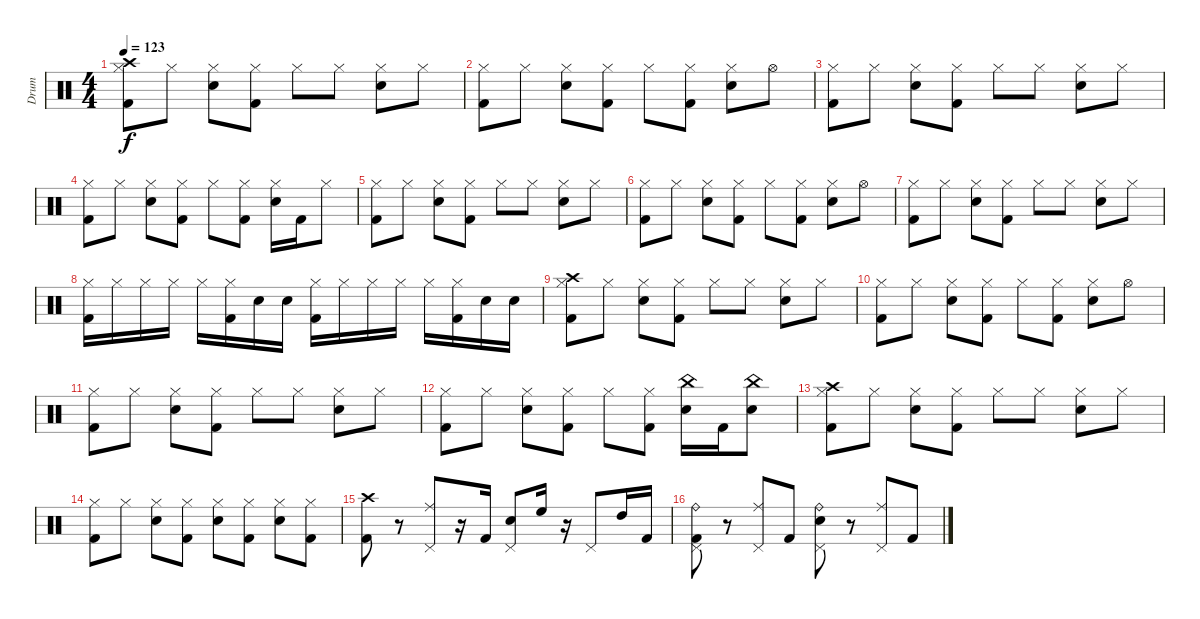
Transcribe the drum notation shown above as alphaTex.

\track ("Drum" "Drum") {instrument percussion}
\staff {score}
\articulation defaults
\ts (4 4)
\tempo 123
\clef neutral
\ks c
("Crash high (hit)" "Hi-Hat (closed)" "Kick (hit) 2").8{dy f} "Hi-Hat (closed)".8 ("Hi-Hat (closed)" "Electric Snare (hit)").8 ("Hi-Hat (closed)" "Kick (hit) 2").8 "Hi-Hat (closed)".8 "Hi-Hat (closed)".8 ("Hi-Hat (closed)" "Electric Snare (hit)").8 "Hi-Hat (closed)".8 |
("Hi-Hat (closed)" "Kick (hit) 2").8 "Hi-Hat (closed)".8 ("Hi-Hat (closed)" "Electric Snare (hit)").8 ("Hi-Hat (closed)" "Kick (hit) 2").8 "Hi-Hat (closed)".8 ("Hi-Hat (closed)" "Kick (hit) 2").8 ("Hi-Hat (closed)" "Electric Snare (hit)").8 "Hi-Hat (open)".8 |
("Hi-Hat (closed)" "Kick (hit) 2").8 "Hi-Hat (closed)".8 ("Hi-Hat (closed)" "Electric Snare (hit)").8 ("Hi-Hat (closed)" "Kick (hit) 2").8 "Hi-Hat (closed)".8 "Hi-Hat (closed)".8 ("Hi-Hat (closed)" "Electric Snare (hit)").8 "Hi-Hat (closed)".8 |
("Hi-Hat (closed)" "Kick (hit) 2").8 "Hi-Hat (closed)".8 ("Hi-Hat (closed)" "Electric Snare (hit)").8 ("Hi-Hat (closed)" "Kick (hit) 2").8 "Hi-Hat (closed)".8 ("Hi-Hat (closed)" "Kick (hit) 2").8 ("Hi-Hat (closed)" "Electric Snare (hit)").16 "Kick (hit) 2".16 "Hi-Hat (closed)".8 |
("Hi-Hat (closed)" "Kick (hit) 2").8 "Hi-Hat (closed)".8 ("Hi-Hat (closed)" "Electric Snare (hit)").8 ("Hi-Hat (closed)" "Kick (hit) 2").8 "Hi-Hat (closed)".8 "Hi-Hat (closed)".8 ("Hi-Hat (closed)" "Electric Snare (hit)").8 "Hi-Hat (closed)".8 |
("Hi-Hat (closed)" "Kick (hit) 2").8 "Hi-Hat (closed)".8 ("Hi-Hat (closed)" "Electric Snare (hit)").8 ("Hi-Hat (closed)" "Kick (hit) 2").8 "Hi-Hat (closed)".8 ("Hi-Hat (closed)" "Kick (hit) 2").8 ("Hi-Hat (closed)" "Electric Snare (hit)").8 "Hi-Hat (open)".8 |
("Hi-Hat (closed)" "Kick (hit) 2").8 "Hi-Hat (closed)".8 ("Hi-Hat (closed)" "Electric Snare (hit)").8 ("Hi-Hat (closed)" "Kick (hit) 2").8 "Hi-Hat (closed)".8 "Hi-Hat (closed)".8 ("Hi-Hat (closed)" "Electric Snare (hit)").8 "Hi-Hat (closed)".8 |
("Hi-Hat (closed)" "Kick (hit) 2").16 "Hi-Hat (closed)".16 "Hi-Hat (closed)".16 "Hi-Hat (closed)".16 "Hi-Hat (closed)".16 ("Hi-Hat (closed)" "Kick (hit) 2").16 "Electric Snare (hit)".16 "Electric Snare (hit)".16 ("Hi-Hat (closed)" "Kick (hit) 2").16 "Hi-Hat (closed)".16 "Hi-Hat (closed)".16 "Hi-Hat (closed)".16 "Hi-Hat (closed)".16 ("Hi-Hat (closed)" "Kick (hit) 2").16 "Electric Snare (hit)".16 "Electric Snare (hit)".16 |
("Crash high (hit)" "Hi-Hat (closed)" "Kick (hit) 2").8 "Hi-Hat (closed)".8 ("Hi-Hat (closed)" "Electric Snare (hit)").8 ("Hi-Hat (closed)" "Kick (hit) 2").8 "Hi-Hat (closed)".8 "Hi-Hat (closed)".8 ("Hi-Hat (closed)" "Electric Snare (hit)").8 "Hi-Hat (closed)".8 |
("Hi-Hat (closed)" "Kick (hit) 2").8 "Hi-Hat (closed)".8 ("Hi-Hat (closed)" "Electric Snare (hit)").8 ("Hi-Hat (closed)" "Kick (hit) 2").8 "Hi-Hat (closed)".8 ("Hi-Hat (closed)" "Kick (hit) 2").8 ("Hi-Hat (closed)" "Electric Snare (hit)").8 "Hi-Hat (open)".8 |
("Hi-Hat (closed)" "Kick (hit) 2").8 "Hi-Hat (closed)".8 ("Hi-Hat (closed)" "Electric Snare (hit)").8 ("Hi-Hat (closed)" "Kick (hit) 2").8 "Hi-Hat (closed)".8 "Hi-Hat (closed)".8 ("Hi-Hat (closed)" "Electric Snare (hit)").8 "Hi-Hat (closed)".8 |
("Hi-Hat (closed)" "Kick (hit) 2").8 "Hi-Hat (closed)".8 ("Hi-Hat (closed)" "Electric Snare (hit)").8 ("Hi-Hat (closed)" "Kick (hit) 2").8 "Hi-Hat (closed)".8 ("Hi-Hat (closed)" "Kick (hit) 2").8 ("China (hit)" "Electric Snare (hit)").16 "Kick (hit) 2".16 ("China (hit)" "Electric Snare (hit)").8 |
("Crash high (hit)" "Hi-Hat (closed)" "Kick (hit) 2").8 "Hi-Hat (closed)".8 ("Hi-Hat (closed)" "Electric Snare (hit)").8 ("Hi-Hat (closed)" "Kick (hit) 2").8 "Hi-Hat (closed)".8 "Hi-Hat (closed)".8 ("Hi-Hat (closed)" "Electric Snare (hit)").8 "Hi-Hat (closed)".8 |
("Hi-Hat (closed)" "Kick (hit) 2").8 "Hi-Hat (closed)".8 ("Hi-Hat (closed)" "Electric Snare (hit)").8 ("Hi-Hat (closed)" "Kick (hit) 2").8 ("Hi-Hat (closed)" "Electric Snare (hit)").8 ("Hi-Hat (closed)" "Kick (hit) 2").8 ("Hi-Hat (closed)" "Electric Snare (hit)").8 ("Hi-Hat (closed)" "Kick (hit) 2").8 |
("Crash high (hit)" "Kick (hit) 2").8 r.8 ("Ride (middle)" "Pedal Hi-Hat (hit)").8 r.16 "Kick (hit) 2".16 ("Electric Snare (hit)" "Pedal Hi-Hat (hit)").8 "High Floor Tom (hit)".16 r.16 "Pedal Hi-Hat (hit)".8 "High Tom (hit)".16 "Kick (hit) 2".16 |
("Ride (bell)" "Kick (hit) 2" "Pedal Hi-Hat (hit)").8 r.8 ("Ride (middle)" "Pedal Hi-Hat (hit)").8 "Kick (hit) 2".8 ("Ride (bell)" "Electric Snare (hit)" "Pedal Hi-Hat (hit)").8 r.8 ("Ride (middle)" "Pedal Hi-Hat (hit)").8 "Kick (hit) 2".8
